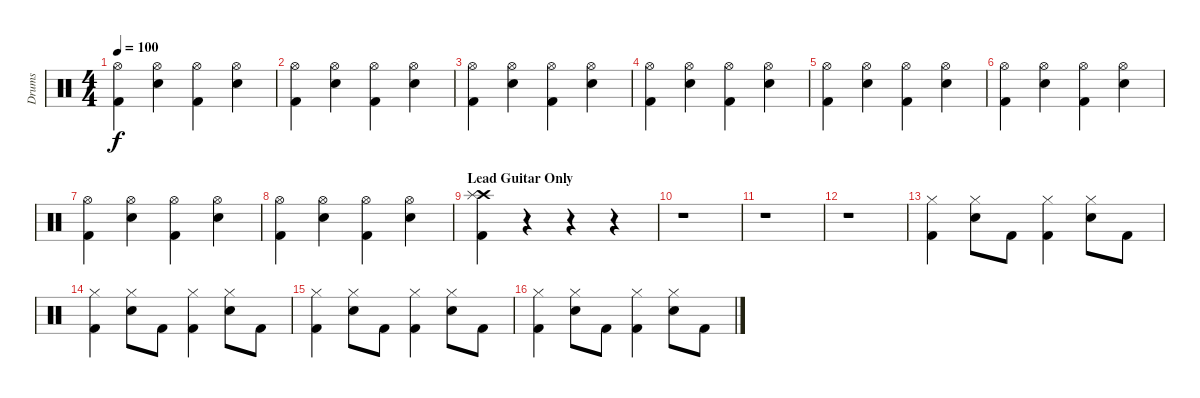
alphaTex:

\track ("Drums" "Drums") {instrument percussion}
\staff {score}
\articulation defaults
\ts (4 4)
\tempo 100
\clef neutral
\ks c
("Hi-Hat (open)" "Kick (hit) 2").4{dy f volume 14} ("Hi-Hat (open)" "Snare (hit) 2").4 ("Hi-Hat (open)" "Kick (hit) 2").4 ("Hi-Hat (open)" "Snare (hit) 2").4 |
("Hi-Hat (open)" "Kick (hit) 2").4 ("Hi-Hat (open)" "Snare (hit) 2").4 ("Hi-Hat (open)" "Kick (hit) 2").4 ("Hi-Hat (open)" "Snare (hit) 2").4 |
("Hi-Hat (open)" "Kick (hit) 2").4 ("Hi-Hat (open)" "Snare (hit) 2").4 ("Hi-Hat (open)" "Kick (hit) 2").4 ("Hi-Hat (open)" "Snare (hit) 2").4 |
("Hi-Hat (open)" "Kick (hit) 2").4 ("Hi-Hat (open)" "Snare (hit) 2").4 ("Hi-Hat (open)" "Kick (hit) 2").4 ("Hi-Hat (open)" "Snare (hit) 2").4 |
("Hi-Hat (open)" "Kick (hit) 2").4 ("Hi-Hat (open)" "Snare (hit) 2").4 ("Hi-Hat (open)" "Kick (hit) 2").4 ("Hi-Hat (open)" "Snare (hit) 2").4 |
("Hi-Hat (open)" "Kick (hit) 2").4 ("Hi-Hat (open)" "Snare (hit) 2").4 ("Hi-Hat (open)" "Kick (hit) 2").4 ("Hi-Hat (open)" "Snare (hit) 2").4 |
("Hi-Hat (open)" "Kick (hit) 2").4 ("Hi-Hat (open)" "Snare (hit) 2").4 ("Hi-Hat (open)" "Kick (hit) 2").4 ("Hi-Hat (open)" "Snare (hit) 2").4 |
("Hi-Hat (open)" "Kick (hit) 2").4 ("Hi-Hat (open)" "Snare (hit) 2").4 ("Hi-Hat (open)" "Kick (hit) 2").4 ("Hi-Hat (open)" "Snare (hit) 2").4 |
\section ("" "Lead Guitar Only")
("Crash high (hit)" "Splash (hit)" "Kick (hit) 2").4 r.4 r.4 r.4 |
r.1 |
r.1 |
r.1 |
("Hi-Hat (closed)" "Kick (hit) 2").4{volume 9} ("Hi-Hat (closed)" "Snare (hit) 2").8 "Kick (hit) 2".8 ("Hi-Hat (closed)" "Kick (hit) 2").4 ("Hi-Hat (closed)" "Snare (hit) 2").8 "Kick (hit) 2".8 |
("Hi-Hat (closed)" "Kick (hit) 2").4 ("Hi-Hat (closed)" "Snare (hit) 2").8 "Kick (hit) 2".8 ("Hi-Hat (closed)" "Kick (hit) 2").4 ("Hi-Hat (closed)" "Snare (hit) 2").8 "Kick (hit) 2".8 |
("Hi-Hat (closed)" "Kick (hit) 2").4 ("Hi-Hat (closed)" "Snare (hit) 2").8 "Kick (hit) 2".8 ("Hi-Hat (closed)" "Kick (hit) 2").4 ("Hi-Hat (closed)" "Snare (hit) 2").8 "Kick (hit) 2".8 |
("Hi-Hat (closed)" "Kick (hit) 2").4 ("Hi-Hat (closed)" "Snare (hit) 2").8 "Kick (hit) 2".8 ("Hi-Hat (closed)" "Kick (hit) 2").4 ("Hi-Hat (closed)" "Snare (hit) 2").8 "Kick (hit) 2".8
